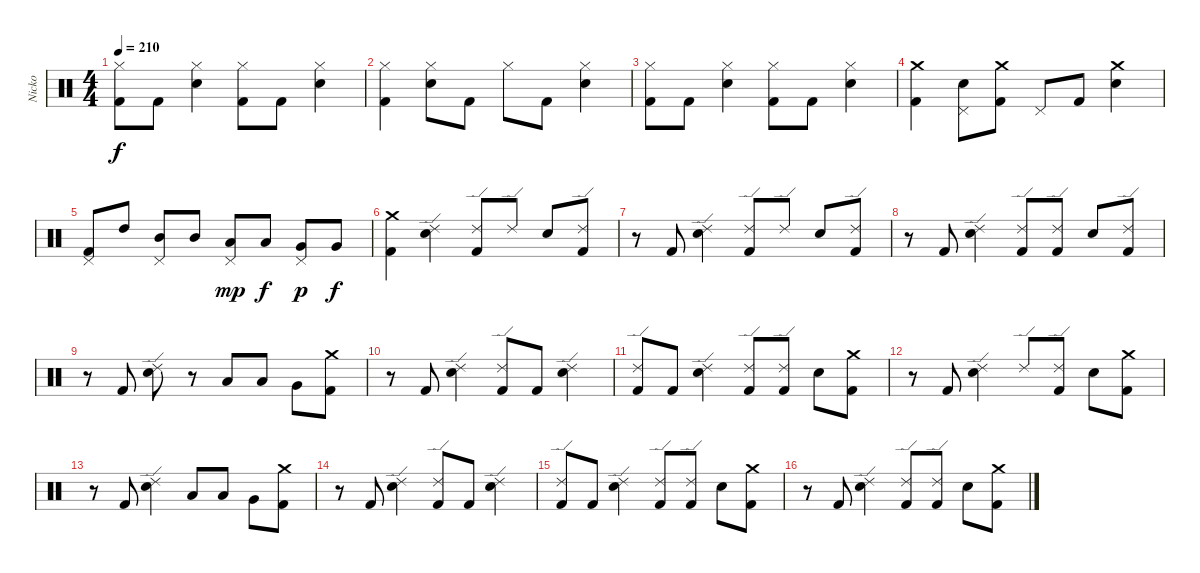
\track ("Nicko" "Nicko") {instrument percussion}
\staff {score}
\articulation defaults
\ts (4 4)
\tempo 210
\clef neutral
\ks c
("Hi-Hat (closed)" "Kick (hit) 2").8{dy f} "Kick (hit) 2".8 ("Hi-Hat (closed)" "Electric Snare (hit)").4 ("Hi-Hat (closed)" "Kick (hit) 2").8 "Kick (hit) 2".8 ("Hi-Hat (closed)" "Electric Snare (hit)").4 |
("Hi-Hat (closed)" "Kick (hit) 2").4 ("Hi-Hat (closed)" "Electric Snare (hit)").8 "Kick (hit) 2".8 "Hi-Hat (closed)".8 "Kick (hit) 2".8 ("Hi-Hat (closed)" "Electric Snare (hit)").4 |
("Hi-Hat (closed)" "Kick (hit) 2").8 "Kick (hit) 2".8 ("Hi-Hat (closed)" "Electric Snare (hit)").4 ("Hi-Hat (closed)" "Kick (hit) 2").8 "Kick (hit) 2".8 ("Hi-Hat (closed)" "Electric Snare (hit)").4 |
("Crash medium (hit)" "Kick (hit) 2").4 ("Pedal Hi-Hat (hit)" "Electric Snare (hit)").8 ("Crash medium (hit)" "Kick (hit) 2").8 "Pedal Hi-Hat (hit)".8 "Kick (hit) 2".8 ("Crash medium (hit)" "Electric Snare (hit)").4 |
("Pedal Hi-Hat (hit)" "Kick (hit) 2").8 "High Tom (hit)".8 ("Pedal Hi-Hat (hit)" "Mid Tom (hit)").8 "Mid Tom (hit)".8 ("Pedal Hi-Hat (hit)" "Low Tom (hit)").8{dy mp} "Low Tom (hit)".8{dy f} ("Pedal Hi-Hat (hit)" "Very Low Tom (hit)").8{dy p} "Very Low Tom (hit)".8{dy f} |
("Crash medium (hit)" "Kick (hit) 2").4 ("Ride (edge) 2" "Electric Snare (hit)").4 ("Ride (edge) 2" "Kick (hit) 2").8 "Ride (edge) 2".8 "Electric Snare (hit)".8 ("Ride (edge) 2" "Kick (hit) 2").8 |
r.8 "Kick (hit) 2".8 ("Ride (edge) 2" "Electric Snare (hit)").4 ("Ride (edge) 2" "Kick (hit) 2").8 "Ride (edge) 2".8 "Electric Snare (hit)".8 ("Ride (edge) 2" "Kick (hit) 2").8 |
r.8 "Kick (hit) 2".8 ("Ride (edge) 2" "Electric Snare (hit)").4 ("Ride (edge) 2" "Kick (hit) 2").8 ("Ride (edge) 2" "Kick (hit) 2").8 "Electric Snare (hit)".8 ("Ride (edge) 2" "Kick (hit) 2").8 |
r.8 "Kick (hit) 2".8 ("Ride (edge) 2" "Electric Snare (hit)").8 r.8 "Low Tom (hit)".8 "Low Tom (hit)".8 "Very Low Tom (hit)".8 ("Crash medium (hit)" "Kick (hit) 2").8 |
r.8 "Kick (hit) 2".8 ("Ride (edge) 2" "Electric Snare (hit)").4 ("Ride (edge) 2" "Kick (hit) 2").8 "Kick (hit) 2".8 ("Ride (edge) 2" "Electric Snare (hit)").4 |
("Ride (edge) 2" "Kick (hit) 2").8 "Kick (hit) 2".8 ("Ride (edge) 2" "Electric Snare (hit)").4 ("Ride (edge) 2" "Kick (hit) 2").8 ("Ride (edge) 2" "Kick (hit) 2").8 "Electric Snare (hit)".8 ("Crash medium (hit)" "Kick (hit) 2").8 |
r.8 "Kick (hit) 2".8 ("Ride (edge) 2" "Electric Snare (hit)").4 "Ride (edge) 2".8 ("Ride (edge) 2" "Kick (hit) 2").8 "Electric Snare (hit)".8 ("Crash medium (hit)" "Kick (hit) 2").8 |
r.8 "Kick (hit) 2".8 ("Ride (edge) 2" "Electric Snare (hit)").4 "Low Tom (hit)".8 "Low Tom (hit)".8 "Very Low Tom (hit)".8 ("Crash medium (hit)" "Kick (hit) 2").8 |
r.8 "Kick (hit) 2".8 ("Ride (edge) 2" "Electric Snare (hit)").4 ("Ride (edge) 2" "Kick (hit) 2").8 "Kick (hit) 2".8 ("Ride (edge) 2" "Electric Snare (hit)").4 |
("Ride (edge) 2" "Kick (hit) 2").8 "Kick (hit) 2".8 ("Ride (edge) 2" "Electric Snare (hit)").4 ("Ride (edge) 2" "Kick (hit) 2").8 ("Ride (edge) 2" "Kick (hit) 2").8 "Electric Snare (hit)".8 ("Crash medium (hit)" "Kick (hit) 2").8 |
r.8 "Kick (hit) 2".8 ("Ride (edge) 2" "Electric Snare (hit)").4 ("Ride (edge) 2" "Kick (hit) 2").8 ("Ride (edge) 2" "Kick (hit) 2").8 "Electric Snare (hit)".8 ("Crash medium (hit)" "Kick (hit) 2").8
